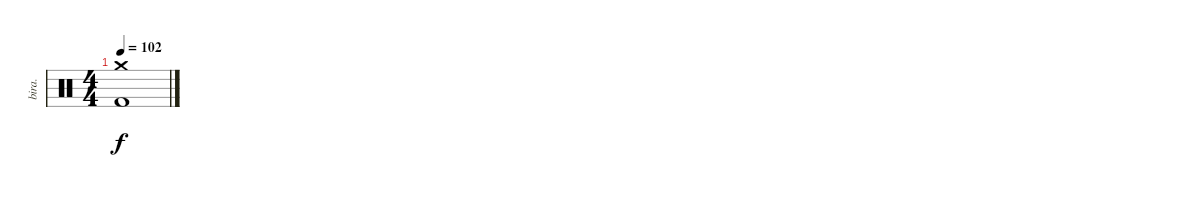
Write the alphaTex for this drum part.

\track ("bira." "bira.") {instrument percussion}
\staff {score}
\articulation defaults
\ts (4 4)
\tempo 102
\clef neutral
\ks c
("Crash medium (hit)" "Kick (hit) 2").1{dy f}
